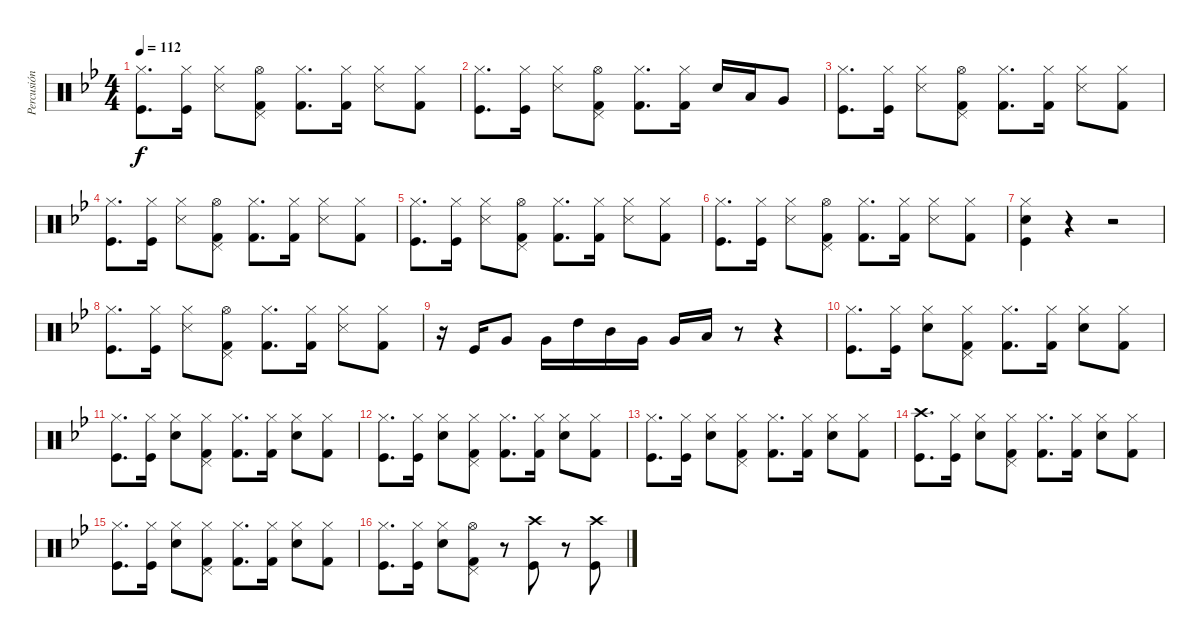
\track ("Percusión" "Percusión") {instrument percussion}
\staff {score}
\articulation defaults
\ts (4 4)
\tempo 112
\clef neutral
\ks bb
("Hi-Hat (closed)" "Kick (hit)").8{d dy f} ("Kick (hit)" "Hi-Hat (closed)").16 ("Hi-Hat (closed)" "Snare (side stick) 3").8 ("Kick (hit) 2" "Pedal Hi-Hat (hit)" "Hi-Hat (open)").8 ("Kick (hit) 2" "Hi-Hat (closed)").8{d} ("Kick (hit) 2" "Hi-Hat (closed)").16 ("Snare (side stick) 3" "Hi-Hat (closed)").8 ("Hi-Hat (closed)" "Kick (hit) 2").8 |
("Hi-Hat (closed)" "Kick (hit)").8{d} ("Kick (hit)" "Hi-Hat (closed)").16 ("Hi-Hat (closed)" "Snare (side stick) 3").8 ("Hi-Hat (open)" "Kick (hit) 2" "Pedal Hi-Hat (hit)").8 ("Kick (hit) 2" "Hi-Hat (closed)").8{d} ("Kick (hit) 2" "Hi-Hat (closed)").16 "Snare (hit) 2".16 "Low Tom (hit)".16 "Very Low Tom (hit)".8 |
("Hi-Hat (closed)" "Kick (hit)").8{d} ("Kick (hit)" "Hi-Hat (closed)").16 ("Hi-Hat (closed)" "Snare (side stick) 3").8 ("Kick (hit) 2" "Pedal Hi-Hat (hit)" "Hi-Hat (open)").8 ("Kick (hit) 2" "Hi-Hat (closed)").8{d} ("Kick (hit) 2" "Hi-Hat (closed)").16 ("Snare (side stick) 3" "Hi-Hat (closed)").8 ("Hi-Hat (closed)" "Kick (hit) 2").8 |
("Hi-Hat (closed)" "Kick (hit)").8{d} ("Kick (hit)" "Hi-Hat (closed)").16 ("Hi-Hat (closed)" "Snare (side stick) 3").8 ("Kick (hit) 2" "Pedal Hi-Hat (hit)" "Hi-Hat (open)").8 ("Kick (hit) 2" "Hi-Hat (closed)").8{d} ("Kick (hit) 2" "Hi-Hat (closed)").16 ("Snare (side stick) 3" "Hi-Hat (closed)").8 ("Hi-Hat (closed)" "Kick (hit) 2").8 |
("Hi-Hat (closed)" "Kick (hit)").8{d} ("Kick (hit)" "Hi-Hat (closed)").16 ("Hi-Hat (closed)" "Snare (side stick) 3").8 ("Kick (hit) 2" "Pedal Hi-Hat (hit)" "Hi-Hat (open)").8 ("Kick (hit) 2" "Hi-Hat (closed)").8{d} ("Kick (hit) 2" "Hi-Hat (closed)").16 ("Snare (side stick) 3" "Hi-Hat (closed)").8 ("Hi-Hat (closed)" "Kick (hit) 2").8 |
("Hi-Hat (closed)" "Kick (hit)").8{d} ("Kick (hit)" "Hi-Hat (closed)").16 ("Hi-Hat (closed)" "Snare (side stick) 3").8 ("Kick (hit) 2" "Pedal Hi-Hat (hit)" "Hi-Hat (open)").8 ("Kick (hit) 2" "Hi-Hat (closed)").8{d} ("Kick (hit) 2" "Hi-Hat (closed)").16 ("Snare (side stick) 3" "Hi-Hat (closed)").8 ("Hi-Hat (closed)" "Kick (hit) 2").8 |
("Snare (hit) 2" "Kick (hit)" "Hi-Hat (closed)").4 r.4 r.2 |
("Hi-Hat (closed)" "Kick (hit)").8{d} ("Kick (hit)" "Hi-Hat (closed)").16 ("Hi-Hat (closed)" "Snare (side stick) 3").8 ("Kick (hit) 2" "Pedal Hi-Hat (hit)" "Hi-Hat (open)").8 ("Kick (hit) 2" "Hi-Hat (closed)").8{d} ("Kick (hit) 2" "Hi-Hat (closed)").16 ("Snare (side stick) 3" "Hi-Hat (closed)").8 ("Hi-Hat (closed)" "Kick (hit) 2").8 |
r.16 "Kick (hit)".16 "Very Low Tom (hit)".8 "Very Low Tom (hit)".16 "High Tom (hit)".16 "Mid Tom (hit)".16 "Very Low Tom (hit)".16 "Very Low Tom (hit)".16 "Low Floor Tom (hit)".16 r.8 r.4 |
("Hi-Hat (closed)" "Kick (hit)").8{d} ("Kick (hit)" "Hi-Hat (closed)").16 ("Hi-Hat (closed)" "Snare (hit) 2").8 ("Hi-Hat (closed)" "Kick (hit) 2" "Pedal Hi-Hat (hit)").8 ("Kick (hit) 2" "Hi-Hat (closed)").8{d} ("Kick (hit) 2" "Hi-Hat (closed)").16 ("Snare (hit) 2" "Hi-Hat (closed)").8 ("Hi-Hat (closed)" "Kick (hit) 2").8 |
("Hi-Hat (closed)" "Kick (hit)").8{d} ("Kick (hit)" "Hi-Hat (closed)").16 ("Hi-Hat (closed)" "Snare (hit) 2").8 ("Hi-Hat (closed)" "Kick (hit) 2" "Pedal Hi-Hat (hit)").8 ("Kick (hit) 2" "Hi-Hat (closed)").8{d} ("Kick (hit) 2" "Hi-Hat (closed)").16 ("Snare (hit) 2" "Hi-Hat (closed)").8 ("Hi-Hat (closed)" "Kick (hit) 2").8 |
("Hi-Hat (closed)" "Kick (hit)").8{d} ("Kick (hit)" "Hi-Hat (closed)").16 ("Hi-Hat (closed)" "Snare (hit) 2").8 ("Hi-Hat (closed)" "Kick (hit) 2" "Pedal Hi-Hat (hit)").8 ("Kick (hit) 2" "Hi-Hat (closed)").8{d} ("Kick (hit) 2" "Hi-Hat (closed)").16 ("Snare (hit) 2" "Hi-Hat (closed)").8 ("Hi-Hat (closed)" "Kick (hit) 2").8 |
("Hi-Hat (closed)" "Kick (hit)").8{d} ("Kick (hit)" "Hi-Hat (closed)").16 ("Hi-Hat (closed)" "Snare (hit) 2").8 ("Hi-Hat (closed)" "Kick (hit) 2" "Pedal Hi-Hat (hit)").8 ("Kick (hit) 2" "Hi-Hat (closed)").8{d} ("Kick (hit) 2" "Hi-Hat (closed)").16 ("Snare (hit) 2" "Hi-Hat (closed)").8 ("Hi-Hat (closed)" "Kick (hit) 2").8 |
("Crash high (hit)" "Kick (hit)").8{d} ("Kick (hit)" "Hi-Hat (closed)").16 ("Hi-Hat (closed)" "Snare (hit) 2").8 ("Hi-Hat (closed)" "Kick (hit) 2" "Pedal Hi-Hat (hit)").8 ("Kick (hit) 2" "Hi-Hat (closed)").8{d} ("Kick (hit) 2" "Hi-Hat (closed)").16 ("Snare (hit) 2" "Hi-Hat (closed)").8 ("Hi-Hat (closed)" "Kick (hit) 2").8 |
("Hi-Hat (closed)" "Kick (hit)").8{d} ("Kick (hit)" "Hi-Hat (closed)").16 ("Hi-Hat (closed)" "Snare (hit) 2").8 ("Hi-Hat (closed)" "Kick (hit) 2" "Pedal Hi-Hat (hit)").8 ("Kick (hit) 2" "Hi-Hat (closed)").8{d} ("Kick (hit) 2" "Hi-Hat (closed)").16 ("Snare (hit) 2" "Hi-Hat (closed)").8 ("Hi-Hat (closed)" "Kick (hit) 2").8 |
("Hi-Hat (closed)" "Kick (hit)").8{d} ("Kick (hit)" "Hi-Hat (closed)").16 ("Hi-Hat (closed)" "Snare (hit) 2").8 ("Kick (hit) 2" "Pedal Hi-Hat (hit)" "Hi-Hat (open)").8 r.8 ("Kick (hit)" "Crash high (hit)").8 r.8 ("Crash high (hit)" "Kick (hit)").8
